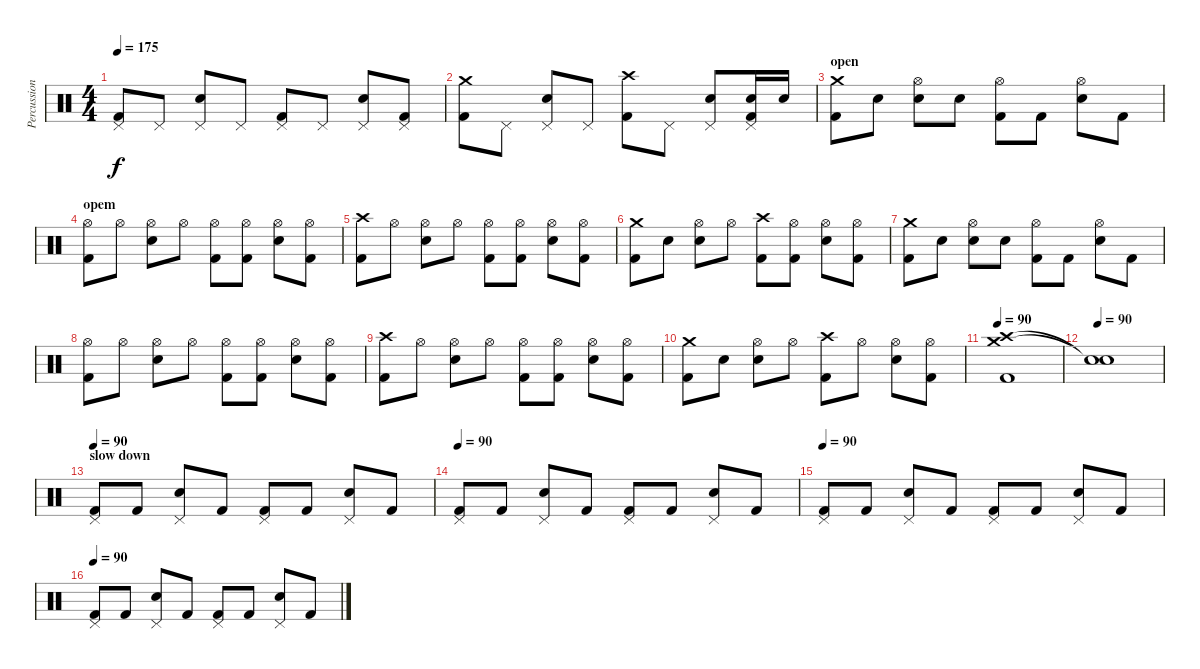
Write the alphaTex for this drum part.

\track ("Percussion" "Percussion") {instrument percussion}
\staff {score}
\articulation defaults
\ts (4 4)
\tempo 175
\clef neutral
\ks c
("Pedal Hi-Hat (hit)" "Kick (hit) 2").8{dy f} "Pedal Hi-Hat (hit)".8 ("Pedal Hi-Hat (hit)" "Electric Snare (hit)").8 "Pedal Hi-Hat (hit)".8 ("Pedal Hi-Hat (hit)" "Kick (hit) 2").8 "Pedal Hi-Hat (hit)".8 ("Pedal Hi-Hat (hit)" "Electric Snare (hit)").8 ("Pedal Hi-Hat (hit)" "Kick (hit) 2").8 |
("Crash medium (hit)" "Kick (hit) 2").8 "Pedal Hi-Hat (hit)".8 ("Pedal Hi-Hat (hit)" "Electric Snare (hit)").8 "Pedal Hi-Hat (hit)".8 ("Crash high (hit)" "Kick (hit) 2").8 "Pedal Hi-Hat (hit)".8 ("Pedal Hi-Hat (hit)" "Electric Snare (hit)").8 ("Pedal Hi-Hat (hit)" "Electric Snare (hit)" "Kick (hit) 2").16 "Electric Snare (hit)".16 |
\section ("" "open")
("Crash medium (hit)" "Kick (hit) 2").8 "Snare (hit)"{x}.8 ("Hi-Hat (open)" "Electric Snare (hit)").8 "Snare (hit)"{x}.8 ("Hi-Hat (open)" "Kick (hit) 2").8 "Kick (hit) 2".8 ("Hi-Hat (open)" "Electric Snare (hit)").8 "Kick (hit) 2".8 |
\section ("" "opem")
("Hi-Hat (open)" "Kick (hit) 2").8 "Hi-Hat (open)"{x}.8 ("Hi-Hat (open)" "Electric Snare (hit)").8 "Hi-Hat (open)"{x}.8 ("Hi-Hat (open)" "Kick (hit) 2").8 ("Hi-Hat (open)"{x} "Kick (hit) 2").8 ("Hi-Hat (open)" "Electric Snare (hit)").8 ("Hi-Hat (open)"{x} "Kick (hit) 2").8 |
("Crash high (hit)" "Kick (hit) 2").8 "Hi-Hat (open)"{x}.8 ("Hi-Hat (open)" "Electric Snare (hit)").8 "Hi-Hat (open)"{x}.8 ("Hi-Hat (open)" "Kick (hit) 2").8 ("Hi-Hat (open)"{x} "Kick (hit) 2").8 ("Hi-Hat (open)" "Electric Snare (hit)").8 ("Hi-Hat (open)"{x} "Kick (hit) 2").8 |
("Crash medium (hit)" "Kick (hit) 2").8 "Snare (hit)"{x}.8 ("Hi-Hat (open)" "Electric Snare (hit)").8 "Hi-Hat (open)"{x}.8 ("Crash high (hit)" "Kick (hit) 2").8 ("Hi-Hat (open)"{x} "Kick (hit) 2").8 ("Hi-Hat (open)" "Electric Snare (hit)").8 ("Hi-Hat (open)"{x} "Kick (hit) 2").8 |
("Crash medium (hit)" "Kick (hit) 2").8 "Snare (hit)"{x}.8 ("Hi-Hat (open)" "Electric Snare (hit)").8 "Snare (hit)"{x}.8 ("Hi-Hat (open)" "Kick (hit) 2").8 "Kick (hit) 2".8 ("Hi-Hat (open)" "Electric Snare (hit)").8 "Kick (hit) 2".8 |
("Hi-Hat (open)" "Kick (hit) 2").8 "Hi-Hat (open)"{x}.8 ("Hi-Hat (open)" "Electric Snare (hit)").8 "Hi-Hat (open)"{x}.8 ("Hi-Hat (open)" "Kick (hit) 2").8 ("Hi-Hat (open)"{x} "Kick (hit) 2").8 ("Hi-Hat (open)" "Electric Snare (hit)").8 ("Hi-Hat (open)"{x} "Kick (hit) 2").8 |
("Crash high (hit)" "Kick (hit) 2").8 "Hi-Hat (open)"{x}.8 ("Hi-Hat (open)" "Electric Snare (hit)").8 "Hi-Hat (open)"{x}.8 ("Hi-Hat (open)" "Kick (hit) 2").8 ("Hi-Hat (open)"{x} "Kick (hit) 2").8 ("Hi-Hat (open)" "Electric Snare (hit)").8 ("Hi-Hat (open)"{x} "Kick (hit) 2").8 |
("Crash medium (hit)" "Kick (hit) 2").8 "Snare (hit)"{x}.8 ("Hi-Hat (open)" "Electric Snare (hit)").8 "Hi-Hat (open)"{x}.8 ("Crash high (hit)" "Kick (hit) 2").8 "Hi-Hat (open)"{x}.8 ("Hi-Hat (open)" "Electric Snare (hit)").8 ("Hi-Hat (open)"{x} "Kick (hit) 2").8 |
\tempo 90
("Crash medium (hit)" "Crash high (hit)" "Kick (hit) 2").1 |
\tempo 90
("Snare (hit)"{t} "Snare (hit)"{t}).1 |
\section ("" "slow down")
\tempo 90
("Pedal Hi-Hat (hit)" "Kick (hit) 2").8 "Kick (hit) 2".8 ("Pedal Hi-Hat (hit)" "Electric Snare (hit)").8 "Kick (hit) 2".8 ("Pedal Hi-Hat (hit)" "Kick (hit) 2").8 "Kick (hit) 2".8 ("Pedal Hi-Hat (hit)" "Electric Snare (hit)").8 "Kick (hit) 2".8 |
\tempo 90
("Pedal Hi-Hat (hit)" "Kick (hit) 2").8 "Kick (hit) 2".8 ("Pedal Hi-Hat (hit)" "Electric Snare (hit)").8 "Kick (hit) 2".8 ("Pedal Hi-Hat (hit)" "Kick (hit) 2").8 "Kick (hit) 2".8 ("Pedal Hi-Hat (hit)" "Electric Snare (hit)").8 "Kick (hit) 2".8 |
\tempo 90
("Pedal Hi-Hat (hit)" "Kick (hit) 2").8 "Kick (hit) 2".8 ("Pedal Hi-Hat (hit)" "Electric Snare (hit)").8 "Kick (hit) 2".8 ("Pedal Hi-Hat (hit)" "Kick (hit) 2").8 "Kick (hit) 2".8 ("Pedal Hi-Hat (hit)" "Electric Snare (hit)").8 "Kick (hit) 2".8 |
\tempo 90
("Pedal Hi-Hat (hit)" "Kick (hit) 2").8 "Kick (hit) 2".8 ("Pedal Hi-Hat (hit)" "Electric Snare (hit)").8 "Kick (hit) 2".8 ("Pedal Hi-Hat (hit)" "Kick (hit) 2").8 "Kick (hit) 2".8 ("Pedal Hi-Hat (hit)" "Electric Snare (hit)").8 "Kick (hit) 2".8
